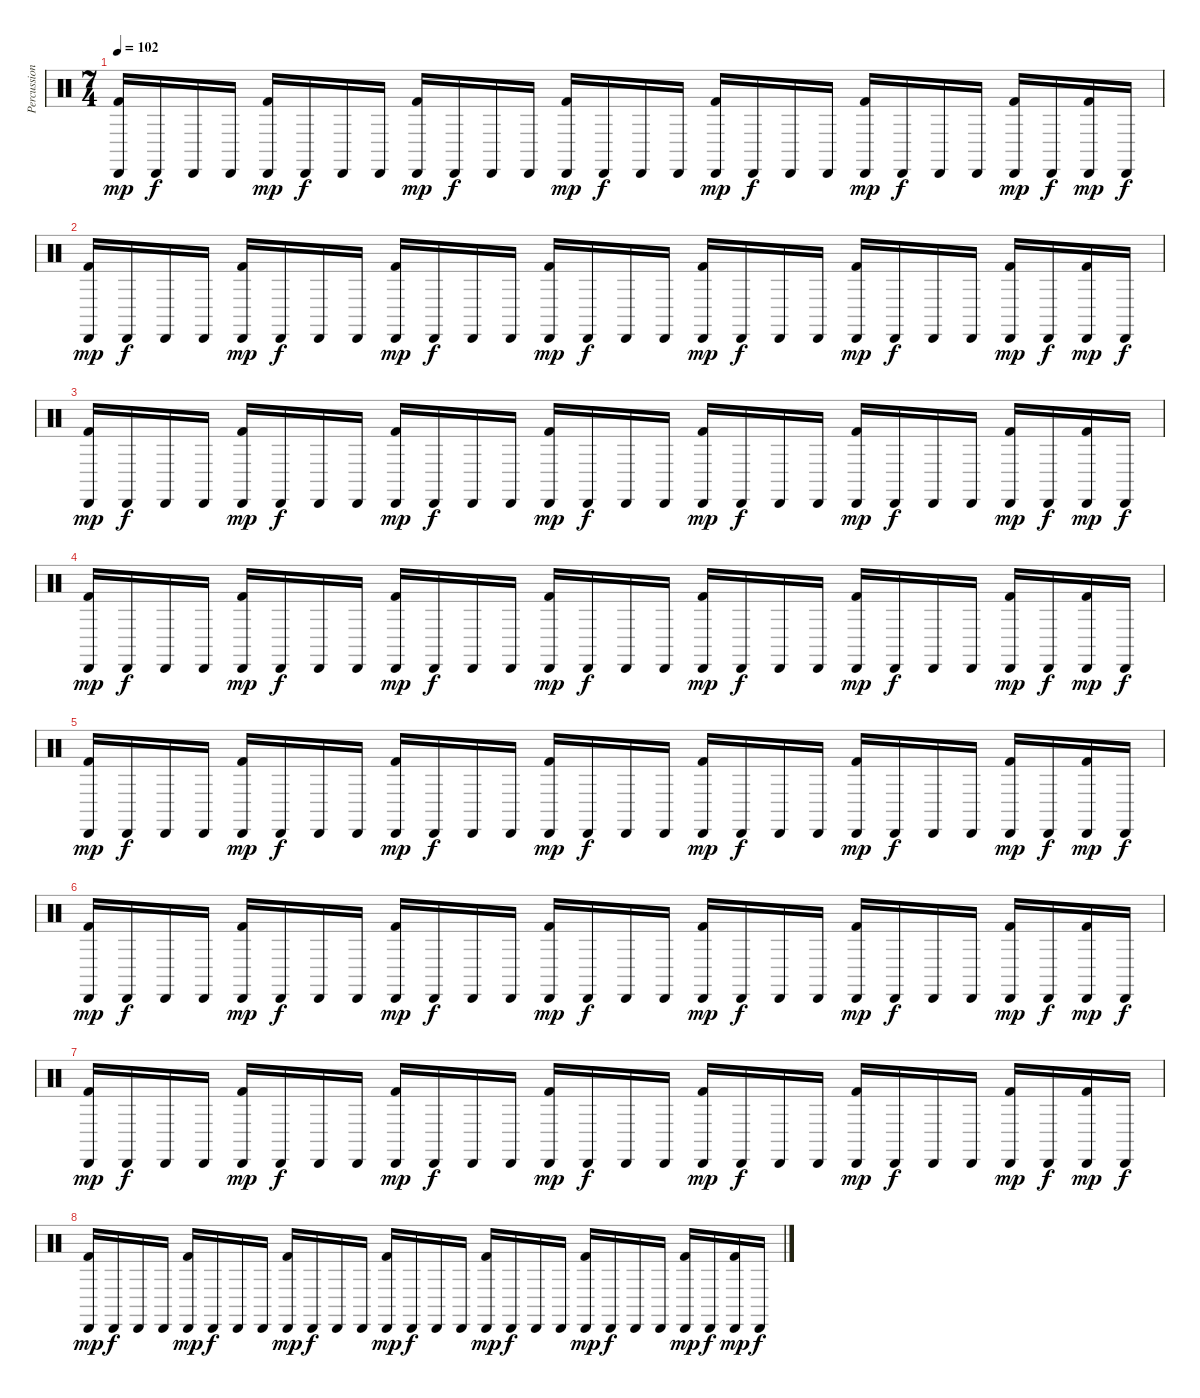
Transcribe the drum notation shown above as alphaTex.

\track ("Percussion" "Percussion") {instrument percussion}
\staff {score}
\articulation defaults
\ts (7 4)
\tempo 102
\clef neutral
\ks c
("Cabasa (hit)" "Kick (hit) 2").16{dy mp} "Cabasa (hit)".16{dy f} "Cabasa (hit)".16 "Cabasa (hit)".16 ("Cabasa (hit)" "Kick (hit) 2").16{dy mp} "Cabasa (hit)".16{dy f} "Cabasa (hit)".16 "Cabasa (hit)".16 ("Cabasa (hit)" "Kick (hit) 2").16{dy mp} "Cabasa (hit)".16{dy f} "Cabasa (hit)".16 "Cabasa (hit)".16 ("Cabasa (hit)" "Kick (hit) 2").16{dy mp} "Cabasa (hit)".16{dy f} "Cabasa (hit)".16 "Cabasa (hit)".16 ("Cabasa (hit)" "Kick (hit) 2").16{dy mp} "Cabasa (hit)".16{dy f} "Cabasa (hit)".16 "Cabasa (hit)".16 ("Cabasa (hit)" "Kick (hit) 2").16{dy mp} "Cabasa (hit)".16{dy f} "Cabasa (hit)".16 "Cabasa (hit)".16 ("Cabasa (hit)" "Kick (hit) 2").16{dy mp} "Cabasa (hit)".16{dy f} ("Cabasa (hit)" "Kick (hit) 2").16{dy mp} "Cabasa (hit)".16{dy f} |
("Cabasa (hit)" "Kick (hit) 2").16{dy mp} "Cabasa (hit)".16{dy f} "Cabasa (hit)".16 "Cabasa (hit)".16 ("Cabasa (hit)" "Kick (hit) 2").16{dy mp} "Cabasa (hit)".16{dy f} "Cabasa (hit)".16 "Cabasa (hit)".16 ("Cabasa (hit)" "Kick (hit) 2").16{dy mp} "Cabasa (hit)".16{dy f} "Cabasa (hit)".16 "Cabasa (hit)".16 ("Cabasa (hit)" "Kick (hit) 2").16{dy mp} "Cabasa (hit)".16{dy f} "Cabasa (hit)".16 "Cabasa (hit)".16 ("Cabasa (hit)" "Kick (hit) 2").16{dy mp} "Cabasa (hit)".16{dy f} "Cabasa (hit)".16 "Cabasa (hit)".16 ("Cabasa (hit)" "Kick (hit) 2").16{dy mp} "Cabasa (hit)".16{dy f} "Cabasa (hit)".16 "Cabasa (hit)".16 ("Cabasa (hit)" "Kick (hit) 2").16{dy mp} "Cabasa (hit)".16{dy f} ("Cabasa (hit)" "Kick (hit) 2").16{dy mp} "Cabasa (hit)".16{dy f} |
("Cabasa (hit)" "Kick (hit) 2").16{dy mp} "Cabasa (hit)".16{dy f} "Cabasa (hit)".16 "Cabasa (hit)".16 ("Cabasa (hit)" "Kick (hit) 2").16{dy mp} "Cabasa (hit)".16{dy f} "Cabasa (hit)".16 "Cabasa (hit)".16 ("Cabasa (hit)" "Kick (hit) 2").16{dy mp} "Cabasa (hit)".16{dy f} "Cabasa (hit)".16 "Cabasa (hit)".16 ("Cabasa (hit)" "Kick (hit) 2").16{dy mp} "Cabasa (hit)".16{dy f} "Cabasa (hit)".16 "Cabasa (hit)".16 ("Cabasa (hit)" "Kick (hit) 2").16{dy mp} "Cabasa (hit)".16{dy f} "Cabasa (hit)".16 "Cabasa (hit)".16 ("Cabasa (hit)" "Kick (hit) 2").16{dy mp} "Cabasa (hit)".16{dy f} "Cabasa (hit)".16 "Cabasa (hit)".16 ("Cabasa (hit)" "Kick (hit) 2").16{dy mp} "Cabasa (hit)".16{dy f} ("Cabasa (hit)" "Kick (hit) 2").16{dy mp} "Cabasa (hit)".16{dy f} |
("Cabasa (hit)" "Kick (hit) 2").16{dy mp} "Cabasa (hit)".16{dy f} "Cabasa (hit)".16 "Cabasa (hit)".16 ("Cabasa (hit)" "Kick (hit) 2").16{dy mp} "Cabasa (hit)".16{dy f} "Cabasa (hit)".16 "Cabasa (hit)".16 ("Cabasa (hit)" "Kick (hit) 2").16{dy mp} "Cabasa (hit)".16{dy f} "Cabasa (hit)".16 "Cabasa (hit)".16 ("Cabasa (hit)" "Kick (hit) 2").16{dy mp} "Cabasa (hit)".16{dy f} "Cabasa (hit)".16 "Cabasa (hit)".16 ("Cabasa (hit)" "Kick (hit) 2").16{dy mp} "Cabasa (hit)".16{dy f} "Cabasa (hit)".16 "Cabasa (hit)".16 ("Cabasa (hit)" "Kick (hit) 2").16{dy mp} "Cabasa (hit)".16{dy f} "Cabasa (hit)".16 "Cabasa (hit)".16 ("Cabasa (hit)" "Kick (hit) 2").16{dy mp} "Cabasa (hit)".16{dy f} ("Cabasa (hit)" "Kick (hit) 2").16{dy mp} "Cabasa (hit)".16{dy f} |
("Cabasa (hit)" "Kick (hit) 2").16{dy mp} "Cabasa (hit)".16{dy f} "Cabasa (hit)".16 "Cabasa (hit)".16 ("Cabasa (hit)" "Kick (hit) 2").16{dy mp} "Cabasa (hit)".16{dy f} "Cabasa (hit)".16 "Cabasa (hit)".16 ("Cabasa (hit)" "Kick (hit) 2").16{dy mp} "Cabasa (hit)".16{dy f} "Cabasa (hit)".16 "Cabasa (hit)".16 ("Cabasa (hit)" "Kick (hit) 2").16{dy mp} "Cabasa (hit)".16{dy f} "Cabasa (hit)".16 "Cabasa (hit)".16 ("Cabasa (hit)" "Kick (hit) 2").16{dy mp} "Cabasa (hit)".16{dy f} "Cabasa (hit)".16 "Cabasa (hit)".16 ("Cabasa (hit)" "Kick (hit) 2").16{dy mp} "Cabasa (hit)".16{dy f} "Cabasa (hit)".16 "Cabasa (hit)".16 ("Cabasa (hit)" "Kick (hit) 2").16{dy mp} "Cabasa (hit)".16{dy f} ("Cabasa (hit)" "Kick (hit) 2").16{dy mp} "Cabasa (hit)".16{dy f} |
("Cabasa (hit)" "Kick (hit) 2").16{dy mp} "Cabasa (hit)".16{dy f} "Cabasa (hit)".16 "Cabasa (hit)".16 ("Cabasa (hit)" "Kick (hit) 2").16{dy mp} "Cabasa (hit)".16{dy f} "Cabasa (hit)".16 "Cabasa (hit)".16 ("Cabasa (hit)" "Kick (hit) 2").16{dy mp} "Cabasa (hit)".16{dy f} "Cabasa (hit)".16 "Cabasa (hit)".16 ("Cabasa (hit)" "Kick (hit) 2").16{dy mp} "Cabasa (hit)".16{dy f} "Cabasa (hit)".16 "Cabasa (hit)".16 ("Cabasa (hit)" "Kick (hit) 2").16{dy mp} "Cabasa (hit)".16{dy f} "Cabasa (hit)".16 "Cabasa (hit)".16 ("Cabasa (hit)" "Kick (hit) 2").16{dy mp} "Cabasa (hit)".16{dy f} "Cabasa (hit)".16 "Cabasa (hit)".16 ("Cabasa (hit)" "Kick (hit) 2").16{dy mp} "Cabasa (hit)".16{dy f} ("Cabasa (hit)" "Kick (hit) 2").16{dy mp} "Cabasa (hit)".16{dy f} |
("Cabasa (hit)" "Kick (hit) 2").16{dy mp} "Cabasa (hit)".16{dy f} "Cabasa (hit)".16 "Cabasa (hit)".16 ("Cabasa (hit)" "Kick (hit) 2").16{dy mp} "Cabasa (hit)".16{dy f} "Cabasa (hit)".16 "Cabasa (hit)".16 ("Cabasa (hit)" "Kick (hit) 2").16{dy mp} "Cabasa (hit)".16{dy f} "Cabasa (hit)".16 "Cabasa (hit)".16 ("Cabasa (hit)" "Kick (hit) 2").16{dy mp} "Cabasa (hit)".16{dy f} "Cabasa (hit)".16 "Cabasa (hit)".16 ("Cabasa (hit)" "Kick (hit) 2").16{dy mp} "Cabasa (hit)".16{dy f} "Cabasa (hit)".16 "Cabasa (hit)".16 ("Cabasa (hit)" "Kick (hit) 2").16{dy mp} "Cabasa (hit)".16{dy f} "Cabasa (hit)".16 "Cabasa (hit)".16 ("Cabasa (hit)" "Kick (hit) 2").16{dy mp} "Cabasa (hit)".16{dy f} ("Cabasa (hit)" "Kick (hit) 2").16{dy mp} "Cabasa (hit)".16{dy f} |
("Cabasa (hit)" "Kick (hit) 2").16{dy mp} "Cabasa (hit)".16{dy f} "Cabasa (hit)".16 "Cabasa (hit)".16 ("Cabasa (hit)" "Kick (hit) 2").16{dy mp} "Cabasa (hit)".16{dy f} "Cabasa (hit)".16 "Cabasa (hit)".16 ("Cabasa (hit)" "Kick (hit) 2").16{dy mp} "Cabasa (hit)".16{dy f} "Cabasa (hit)".16 "Cabasa (hit)".16 ("Cabasa (hit)" "Kick (hit) 2").16{dy mp} "Cabasa (hit)".16{dy f} "Cabasa (hit)".16 "Cabasa (hit)".16 ("Cabasa (hit)" "Kick (hit) 2").16{dy mp} "Cabasa (hit)".16{dy f} "Cabasa (hit)".16 "Cabasa (hit)".16 ("Cabasa (hit)" "Kick (hit) 2").16{dy mp} "Cabasa (hit)".16{dy f} "Cabasa (hit)".16 "Cabasa (hit)".16 ("Cabasa (hit)" "Kick (hit) 2").16{dy mp} "Cabasa (hit)".16{dy f} ("Cabasa (hit)" "Kick (hit) 2").16{dy mp} "Cabasa (hit)".16{dy f}
